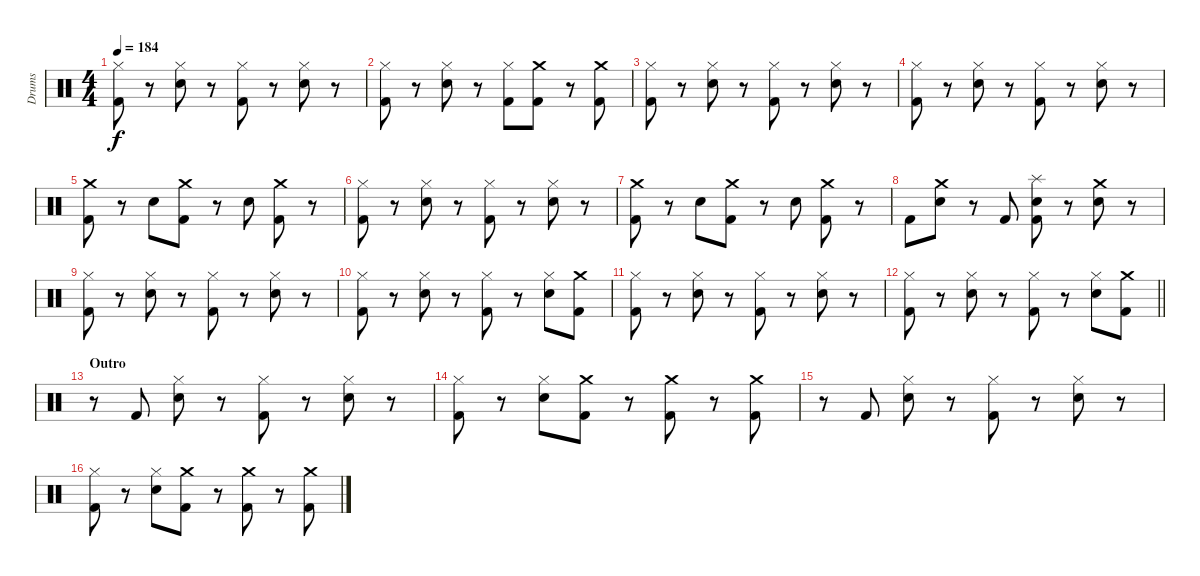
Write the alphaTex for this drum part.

\track ("Drums" "Drums") {instrument percussion}
\staff {score}
\articulation defaults
\ts (4 4)
\tempo 184
\clef neutral
\ks c
("Hi-Hat (closed)" "Kick (hit) 2").8{dy f} r.8 ("Hi-Hat (closed)" "Snare (hit) 2").8 r.8 ("Hi-Hat (closed)" "Kick (hit) 2").8 r.8 ("Hi-Hat (closed)" "Snare (hit) 2").8 r.8 |
("Hi-Hat (closed)" "Kick (hit) 2").8 r.8 ("Hi-Hat (closed)" "Snare (hit) 2").8 r.8 ("Hi-Hat (closed)" "Kick (hit) 2").8 ("Crash medium (hit)" "Kick (hit) 2").8 r.8 ("Crash medium (hit)" "Kick (hit) 2").8 |
("Hi-Hat (closed)" "Kick (hit) 2").8 r.8 ("Hi-Hat (closed)" "Snare (hit) 2").8 r.8 ("Hi-Hat (closed)" "Kick (hit) 2").8 r.8 ("Hi-Hat (closed)" "Snare (hit) 2").8 r.8 |
("Hi-Hat (closed)" "Kick (hit) 2").8 r.8 ("Hi-Hat (closed)" "Snare (hit) 2").8 r.8 ("Hi-Hat (closed)" "Kick (hit) 2").8 r.8 ("Hi-Hat (closed)" "Snare (hit) 2").8 r.8 |
("Crash medium (hit)" "Kick (hit) 2").8 r.8 "Snare (hit) 2".8 ("Crash medium (hit)" "Kick (hit) 2").8 r.8 "Snare (hit) 2".8 ("Crash medium (hit)" "Kick (hit) 2").8 r.8 |
("Hi-Hat (closed)" "Kick (hit) 2").8 r.8 ("Hi-Hat (closed)" "Snare (hit) 2").8 r.8 ("Hi-Hat (closed)" "Kick (hit) 2").8 r.8 ("Hi-Hat (closed)" "Snare (hit) 2").8 r.8 |
("Crash medium (hit)" "Kick (hit) 2").8 r.8 "Snare (hit) 2".8 ("Crash medium (hit)" "Kick (hit) 2").8 r.8 "Snare (hit) 2".8 ("Crash medium (hit)" "Kick (hit) 2").8 r.8 |
"Kick (hit) 2".8 ("Crash medium (hit)" "Snare (hit) 2").8 r.8 "Kick (hit) 2".8 ("Splash (hit)" "Snare (hit) 2" "Kick (hit) 2").8 r.8 ("Crash medium (hit)" "Snare (hit) 2").8 r.8 |
("Hi-Hat (closed)" "Kick (hit) 2").8 r.8 ("Hi-Hat (closed)" "Snare (hit) 2").8 r.8 ("Hi-Hat (closed)" "Kick (hit) 2").8 r.8 ("Hi-Hat (closed)" "Snare (hit) 2").8 r.8 |
("Hi-Hat (closed)" "Kick (hit) 2").8 r.8 ("Hi-Hat (closed)" "Snare (hit) 2").8 r.8 ("Hi-Hat (closed)" "Kick (hit) 2").8 r.8 ("Hi-Hat (closed)" "Snare (hit) 2").8 ("Crash medium (hit)" "Kick (hit) 2").8 |
("Hi-Hat (closed)" "Kick (hit) 2").8 r.8 ("Hi-Hat (closed)" "Snare (hit) 2").8 r.8 ("Hi-Hat (closed)" "Kick (hit) 2").8 r.8 ("Hi-Hat (closed)" "Snare (hit) 2").8 r.8 |
\barLineRight lightlight
("Hi-Hat (closed)" "Kick (hit) 2").8 r.8 ("Hi-Hat (closed)" "Snare (hit) 2").8 r.8 ("Hi-Hat (closed)" "Kick (hit) 2").8 r.8 ("Hi-Hat (closed)" "Snare (hit) 2").8 ("Crash medium (hit)" "Kick (hit) 2").8 |
\section ("" "Outro")
r.8 "Kick (hit) 2".8 ("Hi-Hat (closed)" "Snare (hit) 2").8 r.8 ("Hi-Hat (closed)" "Kick (hit) 2").8 r.8 ("Hi-Hat (closed)" "Snare (hit) 2").8 r.8 |
("Hi-Hat (closed)" "Kick (hit) 2").8 r.8 ("Hi-Hat (closed)" "Snare (hit) 2").8 ("Crash medium (hit)" "Kick (hit) 2").8 r.8 ("Crash medium (hit)" "Kick (hit) 2").8 r.8 ("Crash medium (hit)" "Kick (hit) 2").8 |
r.8 "Kick (hit) 2".8 ("Hi-Hat (closed)" "Snare (hit) 2").8 r.8 ("Hi-Hat (closed)" "Kick (hit) 2").8 r.8 ("Hi-Hat (closed)" "Snare (hit) 2").8 r.8 |
("Hi-Hat (closed)" "Kick (hit) 2").8 r.8 ("Hi-Hat (closed)" "Snare (hit) 2").8 ("Crash medium (hit)" "Kick (hit) 2").8 r.8 ("Crash medium (hit)" "Kick (hit) 2").8 r.8 ("Crash medium (hit)" "Kick (hit) 2").8
